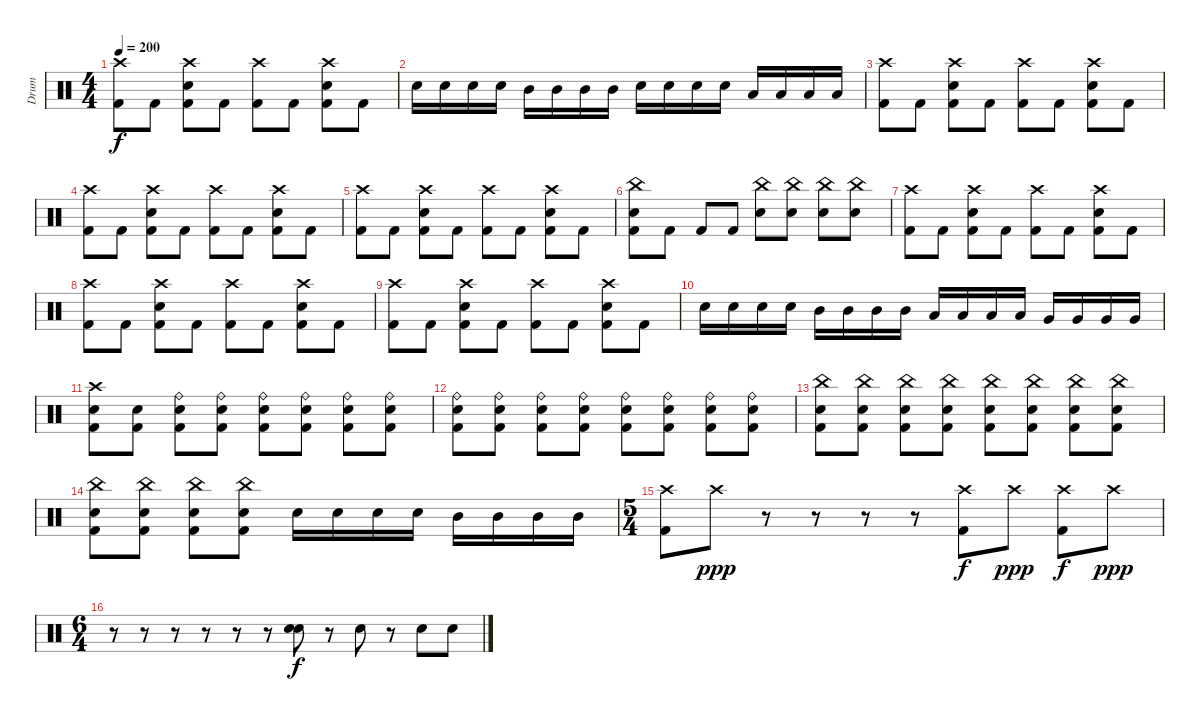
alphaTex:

\track ("Drum" "Drum") {instrument percussion}
\staff {score}
\articulation defaults
\ts (4 4)
\tempo 200
\clef neutral
\ks c
("Crash high (hit)" "Kick (hit) 2").8{dy f} "Kick (hit) 2".8 ("Crash high (hit)" "Snare (hit) 2" "Kick (hit) 2").8 "Kick (hit) 2".8 ("Crash high (hit)" "Kick (hit) 2").8 "Kick (hit) 2".8 ("Crash high (hit)" "Snare (hit) 2" "Kick (hit) 2").8 "Kick (hit) 2".8 |
"Snare (hit) 2".16 "Snare (hit) 2".16 "Snare (hit) 2".16 "Snare (hit) 2".16 "Mid Tom (hit)".16 "Mid Tom (hit)".16 "Mid Tom (hit)".16 "Mid Tom (hit)".16 "Snare (hit) 2".16 "Snare (hit) 2".16 "Snare (hit) 2".16 "Snare (hit) 2".16 "Low Tom (hit)".16 "Low Tom (hit)".16 "Low Tom (hit)".16 "Low Tom (hit)".16 |
("Crash high (hit)" "Kick (hit) 2").8 "Kick (hit) 2".8 ("Crash high (hit)" "Snare (hit) 2" "Kick (hit) 2").8 "Kick (hit) 2".8 ("Crash high (hit)" "Kick (hit) 2").8 "Kick (hit) 2".8 ("Crash high (hit)" "Snare (hit) 2" "Kick (hit) 2").8 "Kick (hit) 2".8 |
("Crash high (hit)" "Kick (hit) 2").8 "Kick (hit) 2".8 ("Crash high (hit)" "Snare (hit) 2" "Kick (hit) 2").8 "Kick (hit) 2".8 ("Crash high (hit)" "Kick (hit) 2").8 "Kick (hit) 2".8 ("Crash high (hit)" "Snare (hit) 2" "Kick (hit) 2").8 "Kick (hit) 2".8 |
("Crash high (hit)" "Kick (hit) 2").8 "Kick (hit) 2".8 ("Crash high (hit)" "Snare (hit) 2" "Kick (hit) 2").8 "Kick (hit) 2".8 ("Crash high (hit)" "Kick (hit) 2").8 "Kick (hit) 2".8 ("Crash high (hit)" "Snare (hit) 2" "Kick (hit) 2").8 "Kick (hit) 2".8 |
("China (hit)" "Snare (hit) 2" "Kick (hit) 2").8 "Kick (hit) 2".8 "Kick (hit) 2".8 "Kick (hit) 2".8 ("China (hit)" "Snare (hit) 2").8 ("China (hit)" "Snare (hit) 2").8 ("China (hit)" "Snare (hit) 2").8 ("China (hit)" "Snare (hit) 2").8 |
("Crash high (hit)" "Kick (hit) 2").8 "Kick (hit) 2".8 ("Crash high (hit)" "Snare (hit) 2" "Kick (hit) 2").8 "Kick (hit) 2".8 ("Crash high (hit)" "Kick (hit) 2").8 "Kick (hit) 2".8 ("Crash high (hit)" "Snare (hit) 2" "Kick (hit) 2").8 "Kick (hit) 2".8 |
("Crash high (hit)" "Kick (hit) 2").8 "Kick (hit) 2".8 ("Crash high (hit)" "Snare (hit) 2" "Kick (hit) 2").8 "Kick (hit) 2".8 ("Crash high (hit)" "Kick (hit) 2").8 "Kick (hit) 2".8 ("Crash high (hit)" "Snare (hit) 2" "Kick (hit) 2").8 "Kick (hit) 2".8 |
("Crash high (hit)" "Kick (hit) 2").8 "Kick (hit) 2".8 ("Crash high (hit)" "Snare (hit) 2" "Kick (hit) 2").8 "Kick (hit) 2".8 ("Crash high (hit)" "Kick (hit) 2").8 "Kick (hit) 2".8 ("Crash high (hit)" "Snare (hit) 2" "Kick (hit) 2").8 "Kick (hit) 2".8 |
"Snare (hit) 2".16 "Snare (hit) 2".16 "Snare (hit) 2".16 "Snare (hit) 2".16 "Mid Tom (hit)".16 "Mid Tom (hit)".16 "Mid Tom (hit)".16 "Mid Tom (hit)".16 "Low Tom (hit)".16 "Low Tom (hit)".16 "Low Tom (hit)".16 "Low Tom (hit)".16 "Very Low Tom (hit)".16 "Very Low Tom (hit)".16 "Very Low Tom (hit)".16 "Very Low Tom (hit)".16 |
("Crash high (hit)" "Snare (hit) 2" "Kick (hit) 2").8 ("Snare (hit) 2" "Kick (hit) 2").8 ("Ride (bell)" "Snare (hit) 2" "Kick (hit) 2").8 ("Ride (bell)" "Snare (hit) 2" "Kick (hit) 2").8 ("Ride (bell)" "Snare (hit) 2" "Kick (hit) 2").8 ("Ride (bell)" "Snare (hit) 2" "Kick (hit) 2").8 ("Ride (bell)" "Snare (hit) 2" "Kick (hit) 2").8 ("Ride (bell)" "Snare (hit) 2" "Kick (hit) 2").8 |
("Ride (bell)" "Snare (hit) 2" "Kick (hit) 2").8 ("Ride (bell)" "Snare (hit) 2" "Kick (hit) 2").8 ("Ride (bell)" "Snare (hit) 2" "Kick (hit) 2").8 ("Ride (bell)" "Snare (hit) 2" "Kick (hit) 2").8 ("Ride (bell)" "Snare (hit) 2" "Kick (hit) 2").8 ("Ride (bell)" "Snare (hit) 2" "Kick (hit) 2").8 ("Ride (bell)" "Snare (hit) 2" "Kick (hit) 2").8 ("Ride (bell)" "Snare (hit) 2" "Kick (hit) 2").8 |
("China (hit)" "Snare (hit) 2" "Kick (hit) 2").8 ("China (hit)" "Snare (hit) 2" "Kick (hit) 2").8 ("China (hit)" "Snare (hit) 2" "Kick (hit) 2").8 ("China (hit)" "Snare (hit) 2" "Kick (hit) 2").8 ("China (hit)" "Snare (hit) 2" "Kick (hit) 2").8 ("China (hit)" "Snare (hit) 2" "Kick (hit) 2").8 ("China (hit)" "Snare (hit) 2" "Kick (hit) 2").8 ("China (hit)" "Snare (hit) 2" "Kick (hit) 2").8 |
("China (hit)" "Snare (hit) 2" "Kick (hit) 2").8 ("China (hit)" "Snare (hit) 2" "Kick (hit) 2").8 ("China (hit)" "Snare (hit) 2" "Kick (hit) 2").8 ("China (hit)" "Snare (hit) 2" "Kick (hit) 2").8 "Snare (hit) 2".16 "Snare (hit) 2".16 "Snare (hit) 2".16 "Snare (hit) 2".16 "Mid Tom (hit)".16 "Mid Tom (hit)".16 "Mid Tom (hit)".16 "Mid Tom (hit)".16 |
\ts (5 4)
("Crash high (hit)" "Kick (hit) 2").8 "Crash high (hit)".8{dy ppp} r.8 r.8 r.8 r.8 ("Crash high (hit)" "Kick (hit) 2").8{dy f} "Crash high (hit)".8{dy ppp} ("Crash high (hit)" "Kick (hit) 2").8{dy f} "Crash high (hit)".8{dy ppp} |
\ts (6 4)
r.8 r.8 r.8 r.8 r.8 r.8 ("Snare (hit) 2" "Snare (hit) 2").8{bd 480 dy f} r.8 "Snare (hit) 2".8 r.8 "Snare (hit) 2".8 "Snare (hit) 2".8
